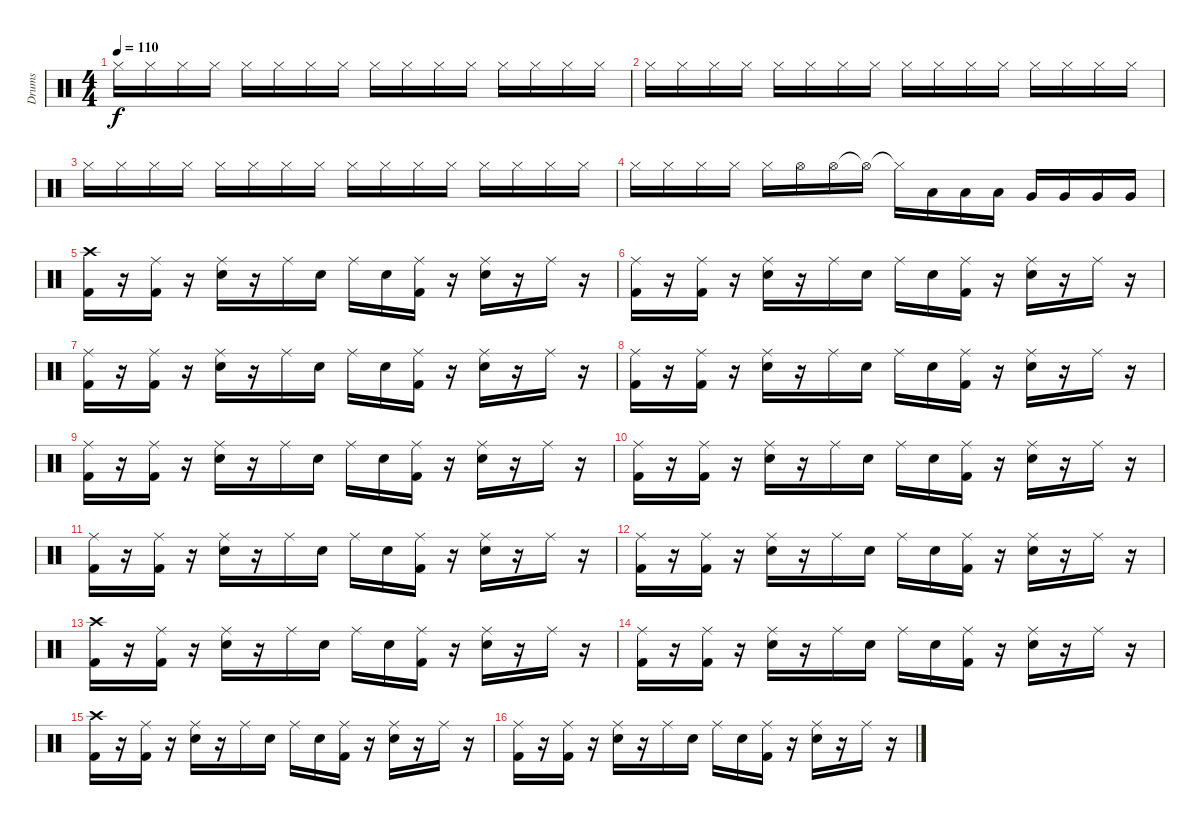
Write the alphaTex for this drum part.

\track ("Drums" "Drums") {instrument percussion}
\staff {score}
\articulation defaults
\ts (4 4)
\tempo 110
\clef neutral
\ks c "Hi-Hat (closed)".16{dy f} "Hi-Hat (closed)".16 "Hi-Hat (closed)".16 "Hi-Hat (closed)".16 "Hi-Hat (closed)".16 "Hi-Hat (closed)".16 "Hi-Hat (closed)".16 "Hi-Hat (closed)".16 "Hi-Hat (closed)".16 "Hi-Hat (closed)".16 "Hi-Hat (closed)".16 "Hi-Hat (closed)".16 "Hi-Hat (closed)".16 "Hi-Hat (closed)".16 "Hi-Hat (closed)".16 "Hi-Hat (closed)".16
|
"Hi-Hat (closed)".16 "Hi-Hat (closed)".16 "Hi-Hat (closed)".16 "Hi-Hat (closed)".16 "Hi-Hat (closed)".16 "Hi-Hat (closed)".16 "Hi-Hat (closed)".16 "Hi-Hat (closed)".16 "Hi-Hat (closed)".16 "Hi-Hat (closed)".16 "Hi-Hat (closed)".16 "Hi-Hat (closed)".16 "Hi-Hat (closed)".16 "Hi-Hat (closed)".16 "Hi-Hat (closed)".16 "Hi-Hat (closed)".16 |
"Hi-Hat (closed)".16 "Hi-Hat (closed)".16 "Hi-Hat (closed)".16 "Hi-Hat (closed)".16 "Hi-Hat (closed)".16 "Hi-Hat (closed)".16 "Hi-Hat (closed)".16 "Hi-Hat (closed)".16 "Hi-Hat (closed)".16 "Hi-Hat (closed)".16 "Hi-Hat (closed)".16 "Hi-Hat (closed)".16 "Hi-Hat (closed)".16 "Hi-Hat (closed)".16 "Hi-Hat (closed)".16 "Hi-Hat (closed)".16 |
"Hi-Hat (closed)".16 "Hi-Hat (closed)".16 "Hi-Hat (closed)".16 "Hi-Hat (closed)".16 "Hi-Hat (closed)".16 "Hi-Hat (open)".16 "Hi-Hat (open)".16 "Hi-Hat (open)"{t}.16 "Hi-Hat (closed)"{t}.16 "Low Tom (hit)".16 "Low Tom (hit)".16 "Low Tom (hit)".16 "Very Low Tom (hit)".16 "Very Low Tom (hit)".16 "Very Low Tom (hit)".16 "Very Low Tom (hit)".16 |
("Crash high (hit)" "Kick (hit) 2").16 r.16 ("Ride (middle)" "Kick (hit) 2").16 r.16 ("Ride (middle)" "Electric Snare (hit)").16 r.16 "Ride (middle)".16 "Electric Snare (hit)".16 "Ride (middle)".16 "Electric Snare (hit)".16 ("Ride (middle)" "Kick (hit) 2").16 r.16 ("Ride (middle)" "Electric Snare (hit)").16 r.16 "Ride (middle)".16 r.16 |
("Ride (middle)" "Kick (hit) 2").16 r.16 ("Ride (middle)" "Kick (hit) 2").16 r.16 ("Ride (middle)" "Electric Snare (hit)").16 r.16 "Ride (middle)".16 "Electric Snare (hit)".16 "Ride (middle)".16 "Electric Snare (hit)".16 ("Ride (middle)" "Kick (hit) 2").16 r.16 ("Ride (middle)" "Electric Snare (hit)").16 r.16 "Ride (middle)".16 r.16 |
("Ride (middle)" "Kick (hit) 2").16 r.16 ("Ride (middle)" "Kick (hit) 2").16 r.16 ("Ride (middle)" "Electric Snare (hit)").16 r.16 "Ride (middle)".16 "Electric Snare (hit)".16 "Ride (middle)".16 "Electric Snare (hit)".16 ("Ride (middle)" "Kick (hit) 2").16 r.16 ("Ride (middle)" "Electric Snare (hit)").16 r.16 "Ride (middle)".16 r.16 |
("Ride (middle)" "Kick (hit) 2").16 r.16 ("Ride (middle)" "Kick (hit) 2").16 r.16 ("Ride (middle)" "Electric Snare (hit)").16 r.16 "Ride (middle)".16 "Electric Snare (hit)".16 "Ride (middle)".16 "Electric Snare (hit)".16 ("Ride (middle)" "Kick (hit) 2").16 r.16 ("Ride (middle)" "Electric Snare (hit)").16 r.16 "Ride (middle)".16 r.16 |
("Ride (middle)" "Kick (hit) 2").16 r.16 ("Ride (middle)" "Kick (hit) 2").16 r.16 ("Ride (middle)" "Electric Snare (hit)").16 r.16 "Ride (middle)".16 "Electric Snare (hit)".16 "Ride (middle)".16 "Electric Snare (hit)".16 ("Ride (middle)" "Kick (hit) 2").16 r.16 ("Ride (middle)" "Electric Snare (hit)").16 r.16 "Ride (middle)".16 r.16 |
("Ride (middle)" "Kick (hit) 2").16 r.16 ("Ride (middle)" "Kick (hit) 2").16 r.16 ("Ride (middle)" "Electric Snare (hit)").16 r.16 "Ride (middle)".16 "Electric Snare (hit)".16 "Ride (middle)".16 "Electric Snare (hit)".16 ("Ride (middle)" "Kick (hit) 2").16 r.16 ("Ride (middle)" "Electric Snare (hit)").16 r.16 "Ride (middle)".16 r.16 |
("Ride (middle)" "Kick (hit) 2").16 r.16 ("Ride (middle)" "Kick (hit) 2").16 r.16 ("Ride (middle)" "Electric Snare (hit)").16 r.16 "Ride (middle)".16 "Electric Snare (hit)".16 "Ride (middle)".16 "Electric Snare (hit)".16 ("Ride (middle)" "Kick (hit) 2").16 r.16 ("Ride (middle)" "Electric Snare (hit)").16 r.16 "Ride (middle)".16 r.16 |
("Ride (middle)" "Kick (hit) 2").16 r.16 ("Ride (middle)" "Kick (hit) 2").16 r.16 ("Ride (middle)" "Electric Snare (hit)").16 r.16 "Ride (middle)".16 "Electric Snare (hit)".16 "Ride (middle)".16 "Electric Snare (hit)".16 ("Ride (middle)" "Kick (hit) 2").16 r.16 ("Ride (middle)" "Electric Snare (hit)").16 r.16 "Ride (middle)".16 r.16 |
("Crash high (hit)" "Kick (hit) 2").16 r.16 ("Ride (middle)" "Kick (hit) 2").16 r.16 ("Ride (middle)" "Electric Snare (hit)").16 r.16 "Ride (middle)".16 "Electric Snare (hit)".16 "Ride (middle)".16 "Electric Snare (hit)".16 ("Ride (middle)" "Kick (hit) 2").16 r.16 ("Ride (middle)" "Electric Snare (hit)").16 r.16 "Ride (middle)".16 r.16 |
("Ride (middle)" "Kick (hit) 2").16 r.16 ("Ride (middle)" "Kick (hit) 2").16 r.16 ("Ride (middle)" "Electric Snare (hit)").16 r.16 "Ride (middle)".16 "Electric Snare (hit)".16 "Ride (middle)".16 "Electric Snare (hit)".16 ("Ride (middle)" "Kick (hit) 2").16 r.16 ("Ride (middle)" "Electric Snare (hit)").16 r.16 "Ride (middle)".16 r.16 |
("Crash high (hit)" "Kick (hit) 2").16 r.16 ("Ride (middle)" "Kick (hit) 2").16 r.16 ("Ride (middle)" "Electric Snare (hit)").16 r.16 "Ride (middle)".16 "Electric Snare (hit)".16 "Ride (middle)".16 "Electric Snare (hit)".16 ("Ride (middle)" "Kick (hit) 2").16 r.16 ("Ride (middle)" "Electric Snare (hit)").16 r.16 "Ride (middle)".16 r.16 |
("Ride (middle)" "Kick (hit) 2").16 r.16 ("Ride (middle)" "Kick (hit) 2").16 r.16 ("Ride (middle)" "Electric Snare (hit)").16 r.16 "Ride (middle)".16 "Electric Snare (hit)".16 "Ride (middle)".16 "Electric Snare (hit)".16 ("Ride (middle)" "Kick (hit) 2").16 r.16 ("Ride (middle)" "Electric Snare (hit)").16 r.16 "Ride (middle)".16 r.16
